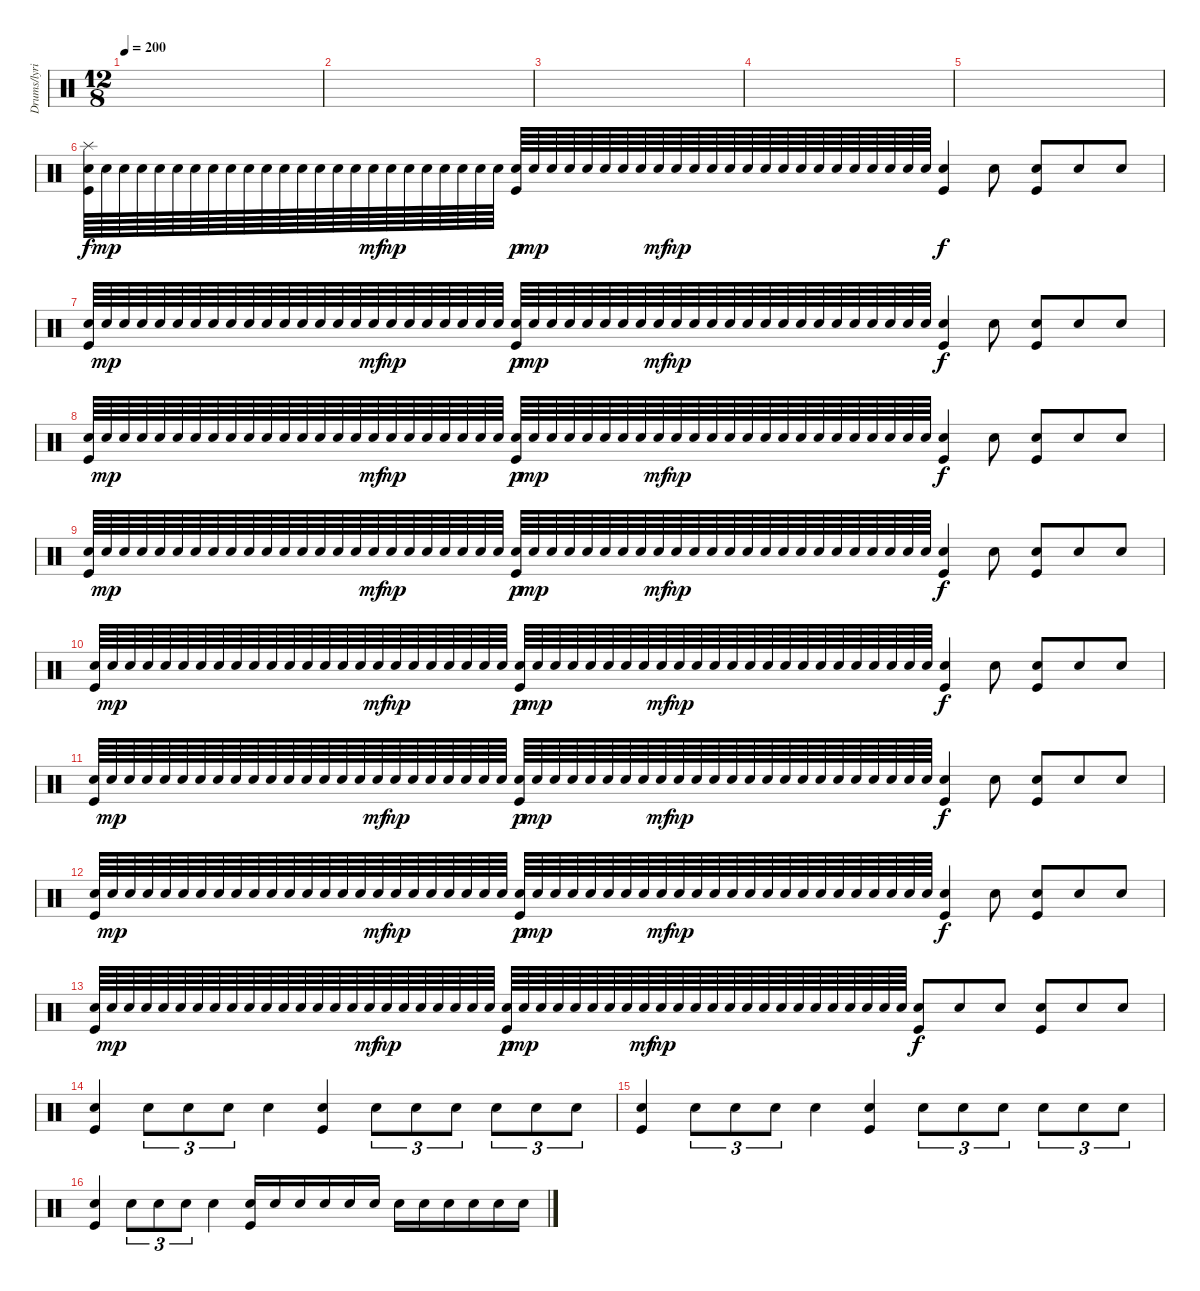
\track ("Drums/lyrics" "Drums/lyri") {instrument percussion}
\staff {score}
\articulation defaults
\ts (12 8)
\tempo 200
\clef neutral
\ks c
|
|
|
|
|
("Splash (hit)" "Snare (hit) 2" "Kick (hit)").64 "Snare (hit) 2".64{dy mp} "Snare (hit) 2".64 "Snare (hit) 2".64 "Snare (hit) 2".64 "Snare (hit) 2".64 "Snare (hit) 2".64 "Snare (hit) 2".64 "Snare (hit) 2".64 "Snare (hit) 2".64 "Snare (hit) 2".64 "Snare (hit) 2".64 "Snare (hit) 2".64 "Snare (hit) 2".64 "Snare (hit) 2".64 "Snare (hit) 2".64 "Snare (hit) 2".64{dy mf} "Snare (hit) 2".64{dy mp} "Snare (hit) 2".64 "Snare (hit) 2".64 "Snare (hit) 2".64 "Snare (hit) 2".64 "Snare (hit) 2".64 "Snare (hit) 2".64 ("Snare (hit) 2" "Kick (hit)").64{dy p} "Snare (hit) 2".64{dy mp} "Snare (hit) 2".64 "Snare (hit) 2".64 "Snare (hit) 2".64 "Snare (hit) 2".64 "Snare (hit) 2".64 "Snare (hit) 2".64 "Snare (hit) 2".64{dy mf} "Snare (hit) 2".64{dy mp} "Snare (hit) 2".64 "Snare (hit) 2".64 "Snare (hit) 2".64 "Snare (hit) 2".64 "Snare (hit) 2".64 "Snare (hit) 2".64 "Snare (hit) 2".64 "Snare (hit) 2".64 "Snare (hit) 2".64 "Snare (hit) 2".64 "Snare (hit) 2".64 "Snare (hit) 2".64 "Snare (hit) 2".64 "Snare (hit) 2".64 ("Snare (hit) 2" "Kick (hit)").4{dy f} "Snare (hit) 2".8 ("Snare (hit) 2" "Kick (hit)").8 "Snare (hit) 2".8 "Snare (hit) 2".8 |
("Snare (hit) 2" "Kick (hit)").64 "Snare (hit) 2".64{dy mp} "Snare (hit) 2".64 "Snare (hit) 2".64 "Snare (hit) 2".64 "Snare (hit) 2".64 "Snare (hit) 2".64 "Snare (hit) 2".64 "Snare (hit) 2".64 "Snare (hit) 2".64 "Snare (hit) 2".64 "Snare (hit) 2".64 "Snare (hit) 2".64 "Snare (hit) 2".64 "Snare (hit) 2".64 "Snare (hit) 2".64 "Snare (hit) 2".64{dy mf} "Snare (hit) 2".64{dy mp} "Snare (hit) 2".64 "Snare (hit) 2".64 "Snare (hit) 2".64 "Snare (hit) 2".64 "Snare (hit) 2".64 "Snare (hit) 2".64 ("Snare (hit) 2" "Kick (hit)").64{dy p} "Snare (hit) 2".64{dy mp} "Snare (hit) 2".64 "Snare (hit) 2".64 "Snare (hit) 2".64 "Snare (hit) 2".64 "Snare (hit) 2".64 "Snare (hit) 2".64 "Snare (hit) 2".64{dy mf} "Snare (hit) 2".64{dy mp} "Snare (hit) 2".64 "Snare (hit) 2".64 "Snare (hit) 2".64 "Snare (hit) 2".64 "Snare (hit) 2".64 "Snare (hit) 2".64 "Snare (hit) 2".64 "Snare (hit) 2".64 "Snare (hit) 2".64 "Snare (hit) 2".64 "Snare (hit) 2".64 "Snare (hit) 2".64 "Snare (hit) 2".64 "Snare (hit) 2".64 ("Snare (hit) 2" "Kick (hit)").4{dy f} "Snare (hit) 2".8 ("Snare (hit) 2" "Kick (hit)").8 "Snare (hit) 2".8 "Snare (hit) 2".8 |
("Snare (hit) 2" "Kick (hit)").64 "Snare (hit) 2".64{dy mp} "Snare (hit) 2".64 "Snare (hit) 2".64 "Snare (hit) 2".64 "Snare (hit) 2".64 "Snare (hit) 2".64 "Snare (hit) 2".64 "Snare (hit) 2".64 "Snare (hit) 2".64 "Snare (hit) 2".64 "Snare (hit) 2".64 "Snare (hit) 2".64 "Snare (hit) 2".64 "Snare (hit) 2".64 "Snare (hit) 2".64 "Snare (hit) 2".64{dy mf} "Snare (hit) 2".64{dy mp} "Snare (hit) 2".64 "Snare (hit) 2".64 "Snare (hit) 2".64 "Snare (hit) 2".64 "Snare (hit) 2".64 "Snare (hit) 2".64 ("Snare (hit) 2" "Kick (hit)").64{dy p} "Snare (hit) 2".64{dy mp} "Snare (hit) 2".64 "Snare (hit) 2".64 "Snare (hit) 2".64 "Snare (hit) 2".64 "Snare (hit) 2".64 "Snare (hit) 2".64 "Snare (hit) 2".64{dy mf} "Snare (hit) 2".64{dy mp} "Snare (hit) 2".64 "Snare (hit) 2".64 "Snare (hit) 2".64 "Snare (hit) 2".64 "Snare (hit) 2".64 "Snare (hit) 2".64 "Snare (hit) 2".64 "Snare (hit) 2".64 "Snare (hit) 2".64 "Snare (hit) 2".64 "Snare (hit) 2".64 "Snare (hit) 2".64 "Snare (hit) 2".64 "Snare (hit) 2".64 ("Snare (hit) 2" "Kick (hit)").4{dy f} "Snare (hit) 2".8 ("Snare (hit) 2" "Kick (hit)").8 "Snare (hit) 2".8 "Snare (hit) 2".8 |
("Snare (hit) 2" "Kick (hit)").64 "Snare (hit) 2".64{dy mp} "Snare (hit) 2".64 "Snare (hit) 2".64 "Snare (hit) 2".64 "Snare (hit) 2".64 "Snare (hit) 2".64 "Snare (hit) 2".64 "Snare (hit) 2".64 "Snare (hit) 2".64 "Snare (hit) 2".64 "Snare (hit) 2".64 "Snare (hit) 2".64 "Snare (hit) 2".64 "Snare (hit) 2".64 "Snare (hit) 2".64 "Snare (hit) 2".64{dy mf} "Snare (hit) 2".64{dy mp} "Snare (hit) 2".64 "Snare (hit) 2".64 "Snare (hit) 2".64 "Snare (hit) 2".64 "Snare (hit) 2".64 "Snare (hit) 2".64 ("Snare (hit) 2" "Kick (hit)").64{dy p} "Snare (hit) 2".64{dy mp} "Snare (hit) 2".64 "Snare (hit) 2".64 "Snare (hit) 2".64 "Snare (hit) 2".64 "Snare (hit) 2".64 "Snare (hit) 2".64 "Snare (hit) 2".64{dy mf} "Snare (hit) 2".64{dy mp} "Snare (hit) 2".64 "Snare (hit) 2".64 "Snare (hit) 2".64 "Snare (hit) 2".64 "Snare (hit) 2".64 "Snare (hit) 2".64 "Snare (hit) 2".64 "Snare (hit) 2".64 "Snare (hit) 2".64 "Snare (hit) 2".64 "Snare (hit) 2".64 "Snare (hit) 2".64 "Snare (hit) 2".64 "Snare (hit) 2".64 ("Snare (hit) 2" "Kick (hit)").4{dy f} "Snare (hit) 2".8 ("Snare (hit) 2" "Kick (hit)").8 "Snare (hit) 2".8 "Snare (hit) 2".8 |
("Snare (hit) 2" "Kick (hit)").64 "Snare (hit) 2".64{dy mp} "Snare (hit) 2".64 "Snare (hit) 2".64 "Snare (hit) 2".64 "Snare (hit) 2".64 "Snare (hit) 2".64 "Snare (hit) 2".64 "Snare (hit) 2".64 "Snare (hit) 2".64 "Snare (hit) 2".64 "Snare (hit) 2".64 "Snare (hit) 2".64 "Snare (hit) 2".64 "Snare (hit) 2".64 "Snare (hit) 2".64 "Snare (hit) 2".64{dy mf} "Snare (hit) 2".64{dy mp} "Snare (hit) 2".64 "Snare (hit) 2".64 "Snare (hit) 2".64 "Snare (hit) 2".64 "Snare (hit) 2".64 "Snare (hit) 2".64 ("Snare (hit) 2" "Kick (hit)").64{dy p} "Snare (hit) 2".64{dy mp} "Snare (hit) 2".64 "Snare (hit) 2".64 "Snare (hit) 2".64 "Snare (hit) 2".64 "Snare (hit) 2".64 "Snare (hit) 2".64 "Snare (hit) 2".64{dy mf} "Snare (hit) 2".64{dy mp} "Snare (hit) 2".64 "Snare (hit) 2".64 "Snare (hit) 2".64 "Snare (hit) 2".64 "Snare (hit) 2".64 "Snare (hit) 2".64 "Snare (hit) 2".64 "Snare (hit) 2".64 "Snare (hit) 2".64 "Snare (hit) 2".64 "Snare (hit) 2".64 "Snare (hit) 2".64 "Snare (hit) 2".64 "Snare (hit) 2".64 ("Snare (hit) 2" "Kick (hit)").4{dy f} "Snare (hit) 2".8 ("Snare (hit) 2" "Kick (hit)").8 "Snare (hit) 2".8 "Snare (hit) 2".8 |
("Snare (hit) 2" "Kick (hit)").64 "Snare (hit) 2".64{dy mp} "Snare (hit) 2".64 "Snare (hit) 2".64 "Snare (hit) 2".64 "Snare (hit) 2".64 "Snare (hit) 2".64 "Snare (hit) 2".64 "Snare (hit) 2".64 "Snare (hit) 2".64 "Snare (hit) 2".64 "Snare (hit) 2".64 "Snare (hit) 2".64 "Snare (hit) 2".64 "Snare (hit) 2".64 "Snare (hit) 2".64 "Snare (hit) 2".64{dy mf} "Snare (hit) 2".64{dy mp} "Snare (hit) 2".64 "Snare (hit) 2".64 "Snare (hit) 2".64 "Snare (hit) 2".64 "Snare (hit) 2".64 "Snare (hit) 2".64 ("Snare (hit) 2" "Kick (hit)").64{dy p} "Snare (hit) 2".64{dy mp} "Snare (hit) 2".64 "Snare (hit) 2".64 "Snare (hit) 2".64 "Snare (hit) 2".64 "Snare (hit) 2".64 "Snare (hit) 2".64 "Snare (hit) 2".64{dy mf} "Snare (hit) 2".64{dy mp} "Snare (hit) 2".64 "Snare (hit) 2".64 "Snare (hit) 2".64 "Snare (hit) 2".64 "Snare (hit) 2".64 "Snare (hit) 2".64 "Snare (hit) 2".64 "Snare (hit) 2".64 "Snare (hit) 2".64 "Snare (hit) 2".64 "Snare (hit) 2".64 "Snare (hit) 2".64 "Snare (hit) 2".64 "Snare (hit) 2".64 ("Snare (hit) 2" "Kick (hit)").4{dy f} "Snare (hit) 2".8 ("Snare (hit) 2" "Kick (hit)").8 "Snare (hit) 2".8 "Snare (hit) 2".8 |
("Snare (hit) 2" "Kick (hit)").64 "Snare (hit) 2".64{dy mp} "Snare (hit) 2".64 "Snare (hit) 2".64 "Snare (hit) 2".64 "Snare (hit) 2".64 "Snare (hit) 2".64 "Snare (hit) 2".64 "Snare (hit) 2".64 "Snare (hit) 2".64 "Snare (hit) 2".64 "Snare (hit) 2".64 "Snare (hit) 2".64 "Snare (hit) 2".64 "Snare (hit) 2".64 "Snare (hit) 2".64 "Snare (hit) 2".64{dy mf} "Snare (hit) 2".64{dy mp} "Snare (hit) 2".64 "Snare (hit) 2".64 "Snare (hit) 2".64 "Snare (hit) 2".64 "Snare (hit) 2".64 "Snare (hit) 2".64 ("Snare (hit) 2" "Kick (hit)").64{dy p} "Snare (hit) 2".64{dy mp} "Snare (hit) 2".64 "Snare (hit) 2".64 "Snare (hit) 2".64 "Snare (hit) 2".64 "Snare (hit) 2".64 "Snare (hit) 2".64 "Snare (hit) 2".64{dy mf} "Snare (hit) 2".64{dy mp} "Snare (hit) 2".64 "Snare (hit) 2".64 "Snare (hit) 2".64 "Snare (hit) 2".64 "Snare (hit) 2".64 "Snare (hit) 2".64 "Snare (hit) 2".64 "Snare (hit) 2".64 "Snare (hit) 2".64 "Snare (hit) 2".64 "Snare (hit) 2".64 "Snare (hit) 2".64 "Snare (hit) 2".64 "Snare (hit) 2".64 ("Snare (hit) 2" "Kick (hit)").4{dy f} "Snare (hit) 2".8 ("Snare (hit) 2" "Kick (hit)").8 "Snare (hit) 2".8 "Snare (hit) 2".8 |
("Snare (hit) 2" "Kick (hit)").64 "Snare (hit) 2".64{dy mp} "Snare (hit) 2".64 "Snare (hit) 2".64 "Snare (hit) 2".64 "Snare (hit) 2".64 "Snare (hit) 2".64 "Snare (hit) 2".64 "Snare (hit) 2".64 "Snare (hit) 2".64 "Snare (hit) 2".64 "Snare (hit) 2".64 "Snare (hit) 2".64 "Snare (hit) 2".64 "Snare (hit) 2".64 "Snare (hit) 2".64 "Snare (hit) 2".64{dy mf} "Snare (hit) 2".64{dy mp} "Snare (hit) 2".64 "Snare (hit) 2".64 "Snare (hit) 2".64 "Snare (hit) 2".64 "Snare (hit) 2".64 "Snare (hit) 2".64 ("Snare (hit) 2" "Kick (hit)").64{dy p} "Snare (hit) 2".64{dy mp} "Snare (hit) 2".64 "Snare (hit) 2".64 "Snare (hit) 2".64 "Snare (hit) 2".64 "Snare (hit) 2".64 "Snare (hit) 2".64 "Snare (hit) 2".64{dy mf} "Snare (hit) 2".64{dy mp} "Snare (hit) 2".64 "Snare (hit) 2".64 "Snare (hit) 2".64 "Snare (hit) 2".64 "Snare (hit) 2".64 "Snare (hit) 2".64 "Snare (hit) 2".64 "Snare (hit) 2".64 "Snare (hit) 2".64 "Snare (hit) 2".64 "Snare (hit) 2".64 "Snare (hit) 2".64 "Snare (hit) 2".64 "Snare (hit) 2".64 ("Snare (hit) 2" "Kick (hit)").8{dy f} "Snare (hit) 2".8 "Snare (hit) 2".8 ("Snare (hit) 2" "Kick (hit)").8 "Snare (hit) 2".8 "Snare (hit) 2".8 |
("Snare (hit) 2" "Kick (hit)").4 "Snare (hit) 2".8{tu (3 2)} "Snare (hit) 2".8{tu (3 2)} "Snare (hit) 2".8{tu (3 2)} "Snare (hit) 2".4 ("Snare (hit) 2" "Kick (hit)").4 "Snare (hit) 2".8{tu (3 2)} "Snare (hit) 2".8{tu (3 2)} "Snare (hit) 2".8{tu (3 2)} "Snare (hit) 2".8{tu (3 2)} "Snare (hit) 2".8{tu (3 2)} "Snare (hit) 2".8{tu (3 2)} |
("Snare (hit) 2" "Kick (hit)").4 "Snare (hit) 2".8{tu (3 2)} "Snare (hit) 2".8{tu (3 2)} "Snare (hit) 2".8{tu (3 2)} "Snare (hit) 2".4 ("Snare (hit) 2" "Kick (hit)").4 "Snare (hit) 2".8{tu (3 2)} "Snare (hit) 2".8{tu (3 2)} "Snare (hit) 2".8{tu (3 2)} "Snare (hit) 2".8{tu (3 2)} "Snare (hit) 2".8{tu (3 2)} "Snare (hit) 2".8{tu (3 2)} |
("Snare (hit) 2" "Kick (hit)").4 "Snare (hit) 2".8{tu (3 2)} "Snare (hit) 2".8{tu (3 2)} "Snare (hit) 2".8{tu (3 2)} "Snare (hit) 2".4 ("Snare (hit) 2" "Kick (hit)").16 "Snare (hit) 2".16 "Snare (hit) 2".16 "Snare (hit) 2".16 "Snare (hit) 2".16 "Snare (hit) 2".16 "Snare (hit) 2".16 "Snare (hit) 2".16 "Snare (hit) 2".16 "Snare (hit) 2".16 "Snare (hit) 2".16 "Snare (hit) 2".16
